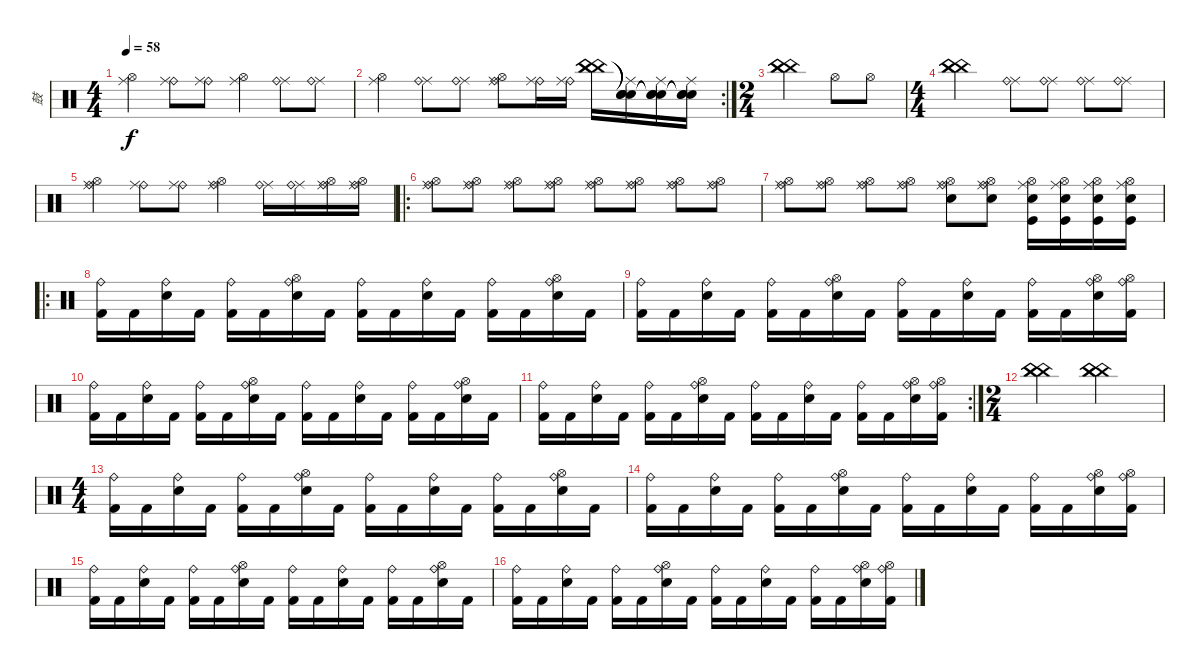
\track ("鼓" "鼓") {instrument percussion}
\staff {score}
\articulation defaults
\ts (4 4)
\tempo 58
\clef neutral
\ks c
("Hi-Hat (open)" "Ride (middle)").4{dy f} ("Ride (bell)" "Ride (middle)").8 ("Ride (bell)" "Ride (middle)").8 ("Hi-Hat (open)" "Ride (middle)").4 ("Ride (middle)" "Ride (bell)").8 ("Ride (middle)" "Ride (bell)").8 |
\rc 2
("Hi-Hat (open)" "Ride (middle)").4 ("Ride (middle)" "Ride (bell)").8 ("Ride (middle)" "Ride (bell)").8 ("Ride (bell)" "Hi-Hat (open)" "Ride (middle)").8 ("Ride (bell)" "Ride (middle)").16 ("Ride (bell)" "Ride (middle)").16 ("China (hit)" "China (hit)" "China (hit)").16 ("Snare (hit)"{t} "Snare (hit)"{t} "Snare (hit)"{t} "Ride (middle)").16 ("Snare (hit)"{t} "Snare (hit)"{t} "Snare (hit)"{t} "Ride (middle)").16 ("Snare (hit)"{t} "Snare (hit)"{t} "Snare (hit)"{t} "Ride (middle)").16 |
\ts (2 4)
("China (hit)" "China (hit)" "China (hit)").4 "Hi-Hat (open)".8 "Hi-Hat (open)".8 |
\ts (4 4)
("China (hit)" "China (hit)" "China (hit)").2 ("Ride (middle)" "Ride (bell)").8 ("Ride (middle)" "Ride (bell)").8 ("Ride (middle)" "Ride (bell)").8 ("Ride (middle)" "Ride (bell)").8 |
("Ride (bell)" "Hi-Hat (open)" "Ride (middle)").4 ("Ride (bell)" "Ride (middle)").8 ("Ride (bell)" "Ride (middle)").8 ("Ride (bell)" "Ride (middle)" "Hi-Hat (open)").4 ("Ride (middle)" "Ride (bell)").16 ("Ride (middle)" "Ride (bell)").16 ("Ride (middle)" "Ride (bell)" "Hi-Hat (open)").16 ("Ride (middle)" "Ride (bell)" "Hi-Hat (open)").16 |
\ro
("Hi-Hat (open)" "Ride (bell)" "Ride (middle)").8 ("Hi-Hat (open)" "Ride (bell)" "Ride (middle)").8 ("Hi-Hat (open)" "Ride (bell)" "Ride (middle)").8 ("Hi-Hat (open)" "Ride (bell)" "Ride (middle)").8 ("Hi-Hat (open)" "Ride (bell)" "Ride (middle)").8 ("Hi-Hat (open)" "Ride (bell)" "Ride (middle)").8 ("Hi-Hat (open)" "Ride (bell)" "Ride (middle)").8 ("Hi-Hat (open)" "Ride (bell)" "Ride (middle)").8 |
("Hi-Hat (open)" "Ride (bell)" "Ride (middle)").8 ("Hi-Hat (open)" "Ride (bell)" "Ride (middle)").8 ("Hi-Hat (open)" "Ride (bell)" "Ride (middle)").8 ("Hi-Hat (open)" "Ride (bell)" "Ride (middle)").8 ("Hi-Hat (open)" "Ride (bell)" "Snare (hit) 2" "Ride (middle)").8 ("Hi-Hat (open)" "Ride (bell)" "Snare (hit) 2" "Ride (middle)").8 ("Hi-Hat (open)" "Kick (hit)" "Snare (hit) 2" "Ride (middle)").16 ("Hi-Hat (open)" "Kick (hit)" "Snare (hit) 2" "Ride (middle)").16 ("Hi-Hat (open)" "Kick (hit)" "Snare (hit) 2" "Ride (middle)").16 ("Hi-Hat (open)" "Kick (hit)" "Snare (hit) 2" "Ride (middle)").16 |
\ro
("Ride (bell)" "Kick (hit) 2").16 "Kick (hit) 2".16 ("Ride (bell)" "Snare (hit) 2").16 "Kick (hit) 2".16 ("Ride (bell)" "Kick (hit) 2").16 "Kick (hit) 2".16 ("Hi-Hat (open)" "Ride (bell)" "Snare (hit) 2").16 "Kick (hit) 2".16 ("Ride (bell)" "Kick (hit) 2").16 "Kick (hit) 2".16 ("Ride (bell)" "Snare (hit) 2").16 "Kick (hit) 2".16 ("Ride (bell)" "Kick (hit) 2").16 "Kick (hit) 2".16 ("Hi-Hat (open)" "Ride (bell)" "Snare (hit) 2").16 "Kick (hit) 2".16 |
("Ride (bell)" "Kick (hit) 2").16 "Kick (hit) 2".16 ("Ride (bell)" "Snare (hit) 2").16 "Kick (hit) 2".16 ("Ride (bell)" "Kick (hit) 2").16 "Kick (hit) 2".16 ("Hi-Hat (open)" "Ride (bell)" "Snare (hit) 2").16 "Kick (hit) 2".16 ("Ride (bell)" "Kick (hit) 2").16 "Kick (hit) 2".16 ("Ride (bell)" "Snare (hit) 2").16 "Kick (hit) 2".16 ("Ride (bell)" "Kick (hit) 2").16 "Kick (hit) 2".16 ("Hi-Hat (open)" "Ride (bell)" "Snare (hit) 2").16 ("Hi-Hat (open)" "Ride (bell)" "Kick (hit) 2").16 |
("Ride (bell)" "Kick (hit) 2").16 "Kick (hit) 2".16 ("Ride (bell)" "Snare (hit) 2").16 "Kick (hit) 2".16 ("Ride (bell)" "Kick (hit) 2").16 "Kick (hit) 2".16 ("Hi-Hat (open)" "Ride (bell)" "Snare (hit) 2").16 "Kick (hit) 2".16 ("Ride (bell)" "Kick (hit) 2").16 "Kick (hit) 2".16 ("Ride (bell)" "Snare (hit) 2").16 "Kick (hit) 2".16 ("Ride (bell)" "Kick (hit) 2").16 "Kick (hit) 2".16 ("Hi-Hat (open)" "Ride (bell)" "Snare (hit) 2").16 "Kick (hit) 2".16 |
\rc 2
("Ride (bell)" "Kick (hit) 2").16 "Kick (hit) 2".16 ("Ride (bell)" "Snare (hit) 2").16 "Kick (hit) 2".16 ("Ride (bell)" "Kick (hit) 2").16 "Kick (hit) 2".16 ("Hi-Hat (open)" "Ride (bell)" "Snare (hit) 2").16 "Kick (hit) 2".16 ("Ride (bell)" "Kick (hit) 2").16 "Kick (hit) 2".16 ("Ride (bell)" "Snare (hit) 2").16 "Kick (hit) 2".16 ("Ride (bell)" "Kick (hit) 2").16 "Kick (hit) 2".16 ("Hi-Hat (open)" "Ride (bell)" "Snare (hit) 2").16 ("Hi-Hat (open)" "Ride (bell)" "Kick (hit) 2").16 |
\ts (2 4)
("China (hit)" "China (hit)" "China (hit)").4 ("China (hit)" "China (hit)" "China (hit)").4 |
\ts (4 4)
("Ride (bell)" "Kick (hit) 2").16 "Kick (hit) 2".16 ("Ride (bell)" "Snare (hit) 2").16 "Kick (hit) 2".16 ("Ride (bell)" "Kick (hit) 2").16 "Kick (hit) 2".16 ("Hi-Hat (open)" "Ride (bell)" "Snare (hit) 2").16 "Kick (hit) 2".16 ("Ride (bell)" "Kick (hit) 2").16 "Kick (hit) 2".16 ("Ride (bell)" "Snare (hit) 2").16 "Kick (hit) 2".16 ("Ride (bell)" "Kick (hit) 2").16 "Kick (hit) 2".16 ("Hi-Hat (open)" "Ride (bell)" "Snare (hit) 2").16 "Kick (hit) 2".16 |
("Ride (bell)" "Kick (hit) 2").16 "Kick (hit) 2".16 ("Ride (bell)" "Snare (hit) 2").16 "Kick (hit) 2".16 ("Ride (bell)" "Kick (hit) 2").16 "Kick (hit) 2".16 ("Hi-Hat (open)" "Ride (bell)" "Snare (hit) 2").16 "Kick (hit) 2".16 ("Ride (bell)" "Kick (hit) 2").16 "Kick (hit) 2".16 ("Ride (bell)" "Snare (hit) 2").16 "Kick (hit) 2".16 ("Ride (bell)" "Kick (hit) 2").16 "Kick (hit) 2".16 ("Hi-Hat (open)" "Ride (bell)" "Snare (hit) 2").16 ("Hi-Hat (open)" "Ride (bell)" "Kick (hit) 2").16 |
("Ride (bell)" "Kick (hit) 2").16 "Kick (hit) 2".16 ("Ride (bell)" "Snare (hit) 2").16 "Kick (hit) 2".16 ("Ride (bell)" "Kick (hit) 2").16 "Kick (hit) 2".16 ("Hi-Hat (open)" "Ride (bell)" "Snare (hit) 2").16 "Kick (hit) 2".16 ("Ride (bell)" "Kick (hit) 2").16 "Kick (hit) 2".16 ("Ride (bell)" "Snare (hit) 2").16 "Kick (hit) 2".16 ("Ride (bell)" "Kick (hit) 2").16 "Kick (hit) 2".16 ("Hi-Hat (open)" "Ride (bell)" "Snare (hit) 2").16 "Kick (hit) 2".16 |
("Ride (bell)" "Kick (hit) 2").16 "Kick (hit) 2".16 ("Ride (bell)" "Snare (hit) 2").16 "Kick (hit) 2".16 ("Ride (bell)" "Kick (hit) 2").16 "Kick (hit) 2".16 ("Hi-Hat (open)" "Ride (bell)" "Snare (hit) 2").16 "Kick (hit) 2".16 ("Ride (bell)" "Kick (hit) 2").16 "Kick (hit) 2".16 ("Ride (bell)" "Snare (hit) 2").16 "Kick (hit) 2".16 ("Ride (bell)" "Kick (hit) 2").16 "Kick (hit) 2".16 ("Hi-Hat (open)" "Ride (bell)" "Snare (hit) 2").16 ("Hi-Hat (open)" "Ride (bell)" "Kick (hit) 2").16
